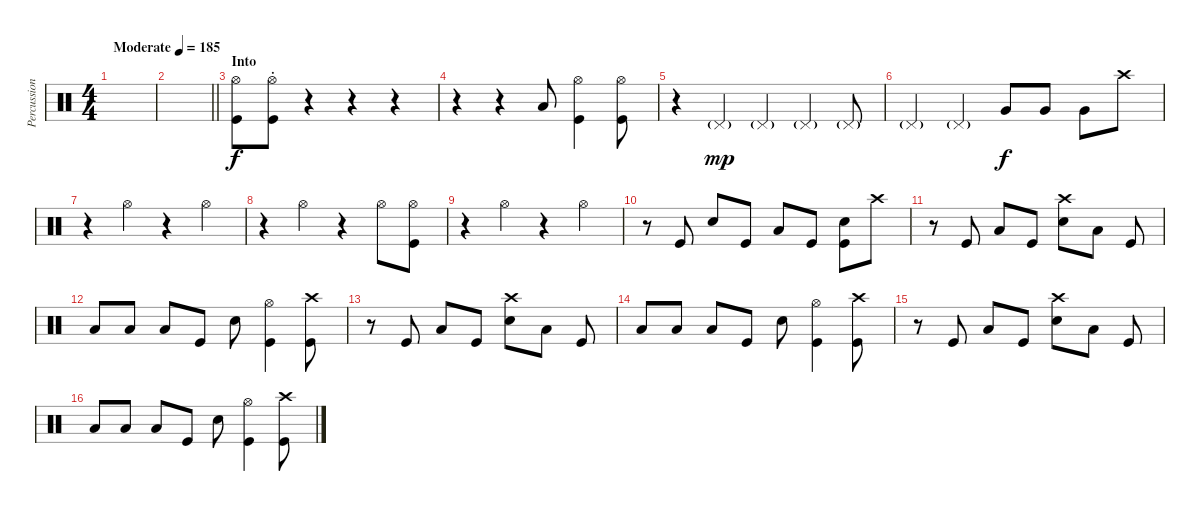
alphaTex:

\track ("Percussion" "Percussion") {instrument percussion}
\staff {score}
\articulation defaults
\ts (4 4)
\tempo (185 "Moderate")
\clef neutral
\ks c
|
\barLineRight lightlight
|
\section ("" "Into")
("Hi-Hat (open)" "Kick (hit)").8 ("Hi-Hat (open)"{st} "Kick (hit)").8 r.4 r.4 r.4 |
r.4 r.4 "Low Tom (hit)".8 ("Hi-Hat (open)" "Kick (hit)").4 ("Hi-Hat (open)" "Kick (hit)").8 |
r.4 "Pedal Hi-Hat (hit)"{g}.4{dy mp} "Pedal Hi-Hat (hit)"{g}.4 "Pedal Hi-Hat (hit)"{g}.4 "Pedal Hi-Hat (hit)"{g}.8 |
"Pedal Hi-Hat (hit)"{g}.4 "Pedal Hi-Hat (hit)"{g}.4 "Very Low Tom (hit)".8{dy f} "Very Low Tom (hit)".8 "Very Low Tom (hit)".8 "Crash high (hit)".8 |
r.4 "Hi-Hat (open)".4 r.4 "Hi-Hat (open)".4 |
r.4 "Hi-Hat (open)".4 r.4 "Hi-Hat (open)".8 ("Hi-Hat (open)" "Kick (hit)").8 |
r.4 "Hi-Hat (open)".4 r.4 "Hi-Hat (open)".4 |
r.8 "Kick (hit)".8 "Electric Snare (hit)".8 "Kick (hit)".8 "Low Floor Tom (hit)".8 "Kick (hit)".8 ("Electric Snare (hit)" "Kick (hit)").8 "Crash high (hit)".8 |
r.8 "Kick (hit)".8 "Low Floor Tom (hit)".8 "Kick (hit)".8 ("Crash high (hit)" "Electric Snare (hit)").8 "Low Floor Tom (hit)".8 "Kick (hit)".8 |
"Low Tom (hit)".8 "Low Tom (hit)".8 "Low Floor Tom (hit)".8 "Kick (hit)".8 "Electric Snare (hit)".8 ("Hi-Hat (open)" "Kick (hit)").4 ("Crash high (hit)" "Kick (hit)").8 |
r.8 "Kick (hit)".8 "Low Floor Tom (hit)".8 "Kick (hit)".8 ("Crash high (hit)" "Electric Snare (hit)").8 "Low Floor Tom (hit)".8 "Kick (hit)".8 |
"Low Tom (hit)".8 "Low Tom (hit)".8 "Low Floor Tom (hit)".8 "Kick (hit)".8 "Electric Snare (hit)".8 ("Hi-Hat (open)" "Kick (hit)").4 ("Crash high (hit)" "Kick (hit)").8 |
r.8 "Kick (hit)".8 "Low Floor Tom (hit)".8 "Kick (hit)".8 ("Crash high (hit)" "Electric Snare (hit)").8 "Low Floor Tom (hit)".8 "Kick (hit)".8 |
"Low Tom (hit)".8 "Low Tom (hit)".8 "Low Floor Tom (hit)".8 "Kick (hit)".8 "Electric Snare (hit)".8 ("Hi-Hat (open)" "Kick (hit)").4 ("Crash high (hit)" "Kick (hit)").8
